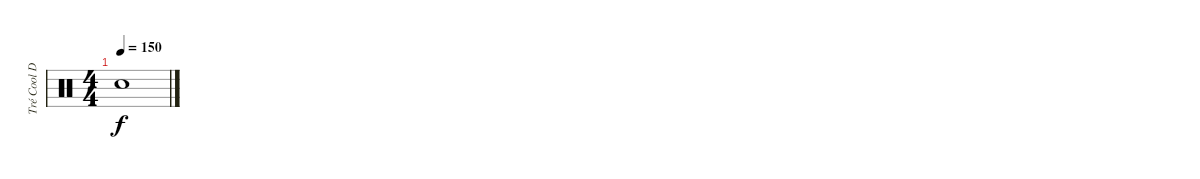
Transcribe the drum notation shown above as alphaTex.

\track ("Tré Cool Drums" "Tré Cool D") {instrument percussion}
\staff {score}
\articulation defaults
\ts (4 4)
\tempo 150
\clef neutral
\ks c "Snare (hit)"{t}.1{dy f}
